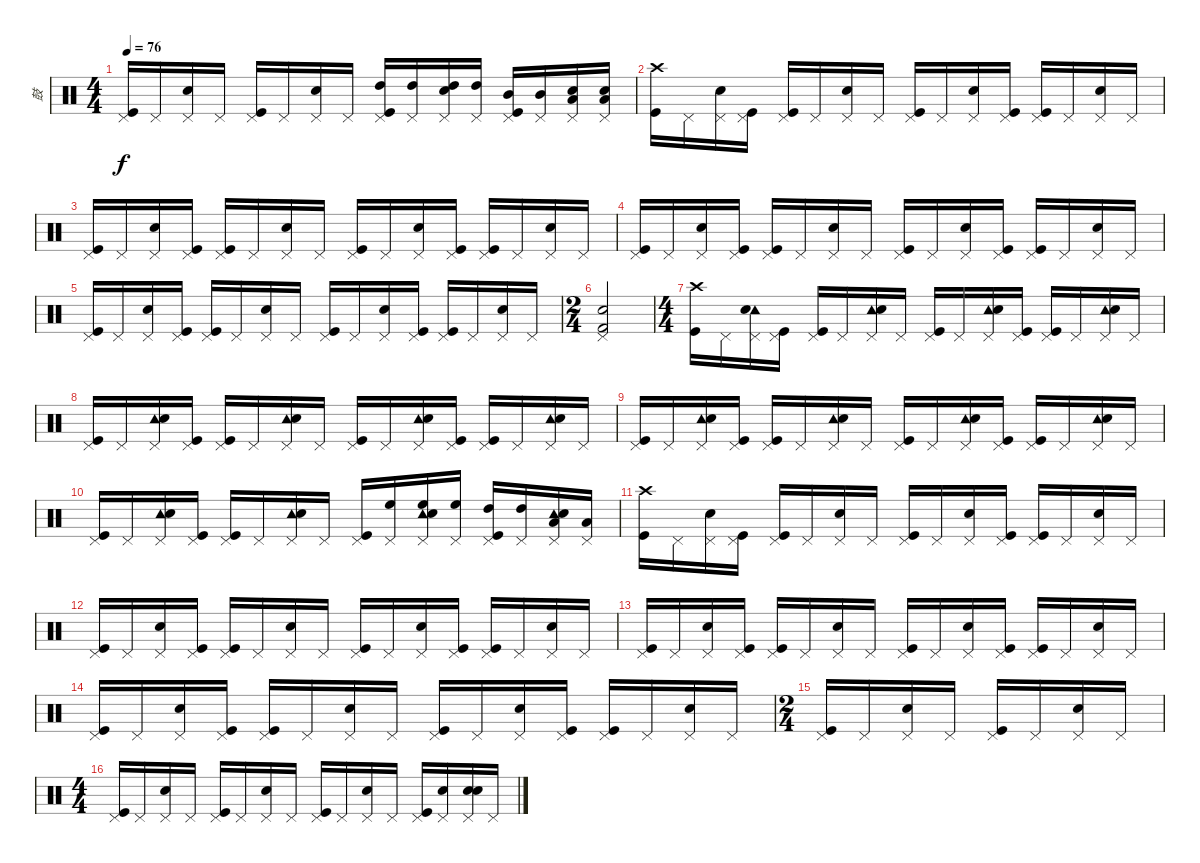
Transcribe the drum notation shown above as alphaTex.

\track ("鼓" "鼓") {instrument percussion}
\staff {score}
\articulation defaults
\ts (4 4)
\tempo 76
\clef neutral
\ks c
("Pedal Hi-Hat (hit)" "Kick (hit)").16{dy f} "Pedal Hi-Hat (hit)".16 ("Pedal Hi-Hat (hit)" "Snare (hit) 2").16 "Pedal Hi-Hat (hit)".16 ("Pedal Hi-Hat (hit)" "Kick (hit)").16 "Pedal Hi-Hat (hit)".16 ("Pedal Hi-Hat (hit)" "Snare (hit) 2").16 "Pedal Hi-Hat (hit)".16 ("Pedal Hi-Hat (hit)" "High Tom (hit)" "Kick (hit)").16 ("Pedal Hi-Hat (hit)" "High Tom (hit)").16 ("Pedal Hi-Hat (hit)" "High Tom (hit)" "Snare (hit) 2").16 ("Pedal Hi-Hat (hit)" "High Tom (hit)").16 ("Pedal Hi-Hat (hit)" "Mid Tom (hit)" "Kick (hit)").16 ("Pedal Hi-Hat (hit)" "Mid Tom (hit)").16 ("Pedal Hi-Hat (hit)" "Low Tom (hit)" "Snare (hit) 2").16 ("Pedal Hi-Hat (hit)" "Low Tom (hit)" "Snare (hit) 2").16 |
("Crash high (hit)" "Kick (hit)").16 "Pedal Hi-Hat (hit)".16 ("Pedal Hi-Hat (hit)" "Snare (hit) 2").16 ("Pedal Hi-Hat (hit)" "Kick (hit)").16 ("Pedal Hi-Hat (hit)" "Kick (hit)").16 "Pedal Hi-Hat (hit)".16 ("Pedal Hi-Hat (hit)" "Snare (hit) 2").16 "Pedal Hi-Hat (hit)".16 ("Pedal Hi-Hat (hit)" "Kick (hit)").16 "Pedal Hi-Hat (hit)".16 ("Pedal Hi-Hat (hit)" "Snare (hit) 2").16 ("Pedal Hi-Hat (hit)" "Kick (hit)").16 ("Pedal Hi-Hat (hit)" "Kick (hit)").16 "Pedal Hi-Hat (hit)".16 ("Pedal Hi-Hat (hit)" "Snare (hit) 2").16 "Pedal Hi-Hat (hit)".16 |
("Pedal Hi-Hat (hit)" "Kick (hit)").16 "Pedal Hi-Hat (hit)".16 ("Pedal Hi-Hat (hit)" "Snare (hit) 2").16 ("Pedal Hi-Hat (hit)" "Kick (hit)").16 ("Pedal Hi-Hat (hit)" "Kick (hit)").16 "Pedal Hi-Hat (hit)".16 ("Pedal Hi-Hat (hit)" "Snare (hit) 2").16 "Pedal Hi-Hat (hit)".16 ("Pedal Hi-Hat (hit)" "Kick (hit)").16 "Pedal Hi-Hat (hit)".16 ("Pedal Hi-Hat (hit)" "Snare (hit) 2").16 ("Pedal Hi-Hat (hit)" "Kick (hit)").16 ("Pedal Hi-Hat (hit)" "Kick (hit)").16 "Pedal Hi-Hat (hit)".16 ("Pedal Hi-Hat (hit)" "Snare (hit) 2").16 "Pedal Hi-Hat (hit)".16 |
("Pedal Hi-Hat (hit)" "Kick (hit)").16 "Pedal Hi-Hat (hit)".16 ("Pedal Hi-Hat (hit)" "Snare (hit) 2").16 ("Pedal Hi-Hat (hit)" "Kick (hit)").16 ("Pedal Hi-Hat (hit)" "Kick (hit)").16 "Pedal Hi-Hat (hit)".16 ("Pedal Hi-Hat (hit)" "Snare (hit) 2").16 "Pedal Hi-Hat (hit)".16 ("Pedal Hi-Hat (hit)" "Kick (hit)").16 "Pedal Hi-Hat (hit)".16 ("Pedal Hi-Hat (hit)" "Snare (hit) 2").16 ("Pedal Hi-Hat (hit)" "Kick (hit)").16 ("Pedal Hi-Hat (hit)" "Kick (hit)").16 "Pedal Hi-Hat (hit)".16 ("Pedal Hi-Hat (hit)" "Snare (hit) 2").16 "Pedal Hi-Hat (hit)".16 |
("Pedal Hi-Hat (hit)" "Kick (hit)").16 "Pedal Hi-Hat (hit)".16 ("Pedal Hi-Hat (hit)" "Snare (hit) 2").16 ("Pedal Hi-Hat (hit)" "Kick (hit)").16 ("Pedal Hi-Hat (hit)" "Kick (hit)").16 "Pedal Hi-Hat (hit)".16 ("Pedal Hi-Hat (hit)" "Snare (hit) 2").16 "Pedal Hi-Hat (hit)".16 ("Pedal Hi-Hat (hit)" "Kick (hit)").16 "Pedal Hi-Hat (hit)".16 ("Pedal Hi-Hat (hit)" "Snare (hit) 2").16 ("Pedal Hi-Hat (hit)" "Kick (hit)").16 ("Pedal Hi-Hat (hit)" "Kick (hit)").16 "Pedal Hi-Hat (hit)".16 ("Pedal Hi-Hat (hit)" "Snare (hit) 2").16 "Pedal Hi-Hat (hit)".16 |
\ts (2 4)
("Pedal Hi-Hat (hit)" "Snare (hit) 2" "Kick (hit) 2").2 |
\ts (4 4)
("Crash high (hit)" "Kick (hit)").16 "Pedal Hi-Hat (hit)".16 ("Pedal Hi-Hat (hit)" "Tambourine (hit)" "Snare (hit) 2").16 ("Pedal Hi-Hat (hit)" "Kick (hit)").16 ("Pedal Hi-Hat (hit)" "Kick (hit)").16 "Pedal Hi-Hat (hit)".16 ("Pedal Hi-Hat (hit)" "Tambourine (hit)" "Snare (hit) 2").16 "Pedal Hi-Hat (hit)".16 ("Pedal Hi-Hat (hit)" "Kick (hit)").16 "Pedal Hi-Hat (hit)".16 ("Pedal Hi-Hat (hit)" "Tambourine (hit)" "Snare (hit) 2").16 ("Pedal Hi-Hat (hit)" "Kick (hit)").16 ("Pedal Hi-Hat (hit)" "Kick (hit)").16 "Pedal Hi-Hat (hit)".16 ("Pedal Hi-Hat (hit)" "Tambourine (hit)" "Snare (hit) 2").16 "Pedal Hi-Hat (hit)".16 |
("Pedal Hi-Hat (hit)" "Kick (hit)").16 "Pedal Hi-Hat (hit)".16 ("Pedal Hi-Hat (hit)" "Tambourine (hit)" "Snare (hit) 2").16 ("Pedal Hi-Hat (hit)" "Kick (hit)").16 ("Pedal Hi-Hat (hit)" "Kick (hit)").16 "Pedal Hi-Hat (hit)".16 ("Pedal Hi-Hat (hit)" "Tambourine (hit)" "Snare (hit) 2").16 "Pedal Hi-Hat (hit)".16 ("Pedal Hi-Hat (hit)" "Kick (hit)").16 "Pedal Hi-Hat (hit)".16 ("Pedal Hi-Hat (hit)" "Tambourine (hit)" "Snare (hit) 2").16 ("Pedal Hi-Hat (hit)" "Kick (hit)").16 ("Pedal Hi-Hat (hit)" "Kick (hit)").16 "Pedal Hi-Hat (hit)".16 ("Pedal Hi-Hat (hit)" "Tambourine (hit)" "Snare (hit) 2").16 "Pedal Hi-Hat (hit)".16 |
("Pedal Hi-Hat (hit)" "Kick (hit)").16 "Pedal Hi-Hat (hit)".16 ("Pedal Hi-Hat (hit)" "Tambourine (hit)" "Snare (hit) 2").16 ("Pedal Hi-Hat (hit)" "Kick (hit)").16 ("Pedal Hi-Hat (hit)" "Kick (hit)").16 "Pedal Hi-Hat (hit)".16 ("Pedal Hi-Hat (hit)" "Tambourine (hit)" "Snare (hit) 2").16 "Pedal Hi-Hat (hit)".16 ("Pedal Hi-Hat (hit)" "Kick (hit)").16 "Pedal Hi-Hat (hit)".16 ("Pedal Hi-Hat (hit)" "Tambourine (hit)" "Snare (hit) 2").16 ("Pedal Hi-Hat (hit)" "Kick (hit)").16 ("Pedal Hi-Hat (hit)" "Kick (hit)").16 "Pedal Hi-Hat (hit)".16 ("Pedal Hi-Hat (hit)" "Tambourine (hit)" "Snare (hit) 2").16 "Pedal Hi-Hat (hit)".16 |
("Pedal Hi-Hat (hit)" "Kick (hit)").16 "Pedal Hi-Hat (hit)".16 ("Pedal Hi-Hat (hit)" "Tambourine (hit)" "Snare (hit) 2").16 ("Pedal Hi-Hat (hit)" "Kick (hit)").16 ("Pedal Hi-Hat (hit)" "Kick (hit)").16 "Pedal Hi-Hat (hit)".16 ("Pedal Hi-Hat (hit)" "Tambourine (hit)" "Snare (hit) 2").16 "Pedal Hi-Hat (hit)".16 ("Pedal Hi-Hat (hit)" "Kick (hit)").16 ("Pedal Hi-Hat (hit)" "High Floor Tom (hit)").16 ("Pedal Hi-Hat (hit)" "Tambourine (hit)" "Snare (hit) 2" "High Floor Tom (hit)").16 ("Pedal Hi-Hat (hit)" "High Floor Tom (hit)").16 ("Pedal Hi-Hat (hit)" "Kick (hit)" "High Tom (hit)").16 ("Pedal Hi-Hat (hit)" "High Tom (hit)").16 ("Pedal Hi-Hat (hit)" "Tambourine (hit)" "Snare (hit) 2" "Low Tom (hit)").16 ("Pedal Hi-Hat (hit)" "Low Tom (hit)").16 |
("Crash high (hit)" "Kick (hit)").16 "Pedal Hi-Hat (hit)".16 ("Pedal Hi-Hat (hit)" "Snare (hit) 2").16 ("Pedal Hi-Hat (hit)" "Kick (hit)").16 ("Pedal Hi-Hat (hit)" "Kick (hit)").16 "Pedal Hi-Hat (hit)".16 ("Pedal Hi-Hat (hit)" "Snare (hit) 2").16 "Pedal Hi-Hat (hit)".16 ("Pedal Hi-Hat (hit)" "Kick (hit)").16 "Pedal Hi-Hat (hit)".16 ("Pedal Hi-Hat (hit)" "Snare (hit) 2").16 ("Pedal Hi-Hat (hit)" "Kick (hit)").16 ("Pedal Hi-Hat (hit)" "Kick (hit)").16 "Pedal Hi-Hat (hit)".16 ("Pedal Hi-Hat (hit)" "Snare (hit) 2").16 "Pedal Hi-Hat (hit)".16 |
("Pedal Hi-Hat (hit)" "Kick (hit)").16 "Pedal Hi-Hat (hit)".16 ("Pedal Hi-Hat (hit)" "Snare (hit) 2").16 ("Pedal Hi-Hat (hit)" "Kick (hit)").16 ("Pedal Hi-Hat (hit)" "Kick (hit)").16 "Pedal Hi-Hat (hit)".16 ("Pedal Hi-Hat (hit)" "Snare (hit) 2").16 "Pedal Hi-Hat (hit)".16 ("Pedal Hi-Hat (hit)" "Kick (hit)").16 "Pedal Hi-Hat (hit)".16 ("Pedal Hi-Hat (hit)" "Snare (hit) 2").16 ("Pedal Hi-Hat (hit)" "Kick (hit)").16 ("Pedal Hi-Hat (hit)" "Kick (hit)").16 "Pedal Hi-Hat (hit)".16 ("Pedal Hi-Hat (hit)" "Snare (hit) 2").16 "Pedal Hi-Hat (hit)".16 |
("Pedal Hi-Hat (hit)" "Kick (hit)").16 "Pedal Hi-Hat (hit)".16 ("Pedal Hi-Hat (hit)" "Snare (hit) 2").16 ("Pedal Hi-Hat (hit)" "Kick (hit)").16 ("Pedal Hi-Hat (hit)" "Kick (hit)").16 "Pedal Hi-Hat (hit)".16 ("Pedal Hi-Hat (hit)" "Snare (hit) 2").16 "Pedal Hi-Hat (hit)".16 ("Pedal Hi-Hat (hit)" "Kick (hit)").16 "Pedal Hi-Hat (hit)".16 ("Pedal Hi-Hat (hit)" "Snare (hit) 2").16 ("Pedal Hi-Hat (hit)" "Kick (hit)").16 ("Pedal Hi-Hat (hit)" "Kick (hit)").16 "Pedal Hi-Hat (hit)".16 ("Pedal Hi-Hat (hit)" "Snare (hit) 2").16 "Pedal Hi-Hat (hit)".16 |
("Pedal Hi-Hat (hit)" "Kick (hit)").16 "Pedal Hi-Hat (hit)".16 ("Pedal Hi-Hat (hit)" "Snare (hit) 2").16 ("Pedal Hi-Hat (hit)" "Kick (hit)").16 ("Pedal Hi-Hat (hit)" "Kick (hit)").16 "Pedal Hi-Hat (hit)".16 ("Pedal Hi-Hat (hit)" "Snare (hit) 2").16 "Pedal Hi-Hat (hit)".16 ("Pedal Hi-Hat (hit)" "Kick (hit)").16 "Pedal Hi-Hat (hit)".16 ("Pedal Hi-Hat (hit)" "Snare (hit) 2").16 ("Pedal Hi-Hat (hit)" "Kick (hit)").16 ("Pedal Hi-Hat (hit)" "Kick (hit)").16 "Pedal Hi-Hat (hit)".16 ("Pedal Hi-Hat (hit)" "Snare (hit) 2").16 "Pedal Hi-Hat (hit)".16 |
\ts (2 4)
("Pedal Hi-Hat (hit)" "Kick (hit)").16 "Pedal Hi-Hat (hit)".16 ("Pedal Hi-Hat (hit)" "Snare (hit) 2").16 "Pedal Hi-Hat (hit)".16 ("Pedal Hi-Hat (hit)" "Kick (hit)").16 "Pedal Hi-Hat (hit)".16 ("Pedal Hi-Hat (hit)" "Snare (hit) 2").16 "Pedal Hi-Hat (hit)".16 |
\ts (4 4)
("Pedal Hi-Hat (hit)" "Kick (hit)").16 "Pedal Hi-Hat (hit)".16 ("Pedal Hi-Hat (hit)" "Snare (hit) 2").16 "Pedal Hi-Hat (hit)".16 ("Pedal Hi-Hat (hit)" "Kick (hit)").16 "Pedal Hi-Hat (hit)".16 ("Pedal Hi-Hat (hit)" "Snare (hit) 2").16 "Pedal Hi-Hat (hit)".16 ("Pedal Hi-Hat (hit)" "Kick (hit)").16 "Pedal Hi-Hat (hit)".16 ("Pedal Hi-Hat (hit)" "Snare (hit) 2").16 "Pedal Hi-Hat (hit)".16 ("Pedal Hi-Hat (hit)" "Kick (hit)").16 ("Pedal Hi-Hat (hit)" "Hand Clap (hit)").16 ("Pedal Hi-Hat (hit)" "Hand Clap (hit)" "Snare (hit) 2").16 "Pedal Hi-Hat (hit)".16
